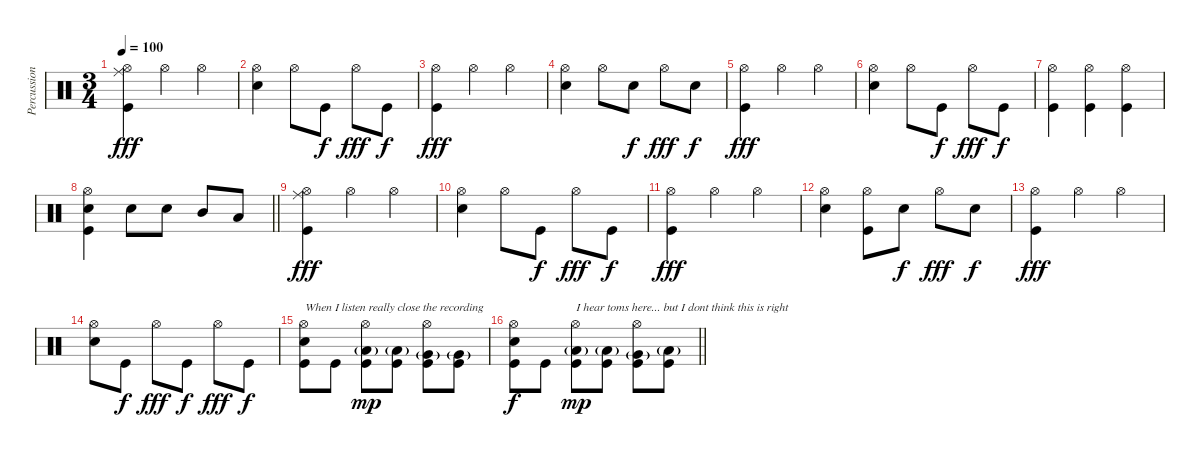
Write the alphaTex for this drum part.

\track ("Percussion" "Percussion") {instrument percussion}
\staff {score}
\articulation defaults
\ts (3 4)
\section ("" "")
\tempo 100
\clef neutral
\ks aminor
("Hi-Hat (open)" "Ride (middle)" "Kick (hit)").4{dy fff} "Hi-Hat (open)".4 "Hi-Hat (open)".4 |
("Hi-Hat (open)" "Snare (hit) 2").4 "Hi-Hat (open)".8 "Kick (hit)".8{dy f} "Hi-Hat (open)".8{dy fff} "Kick (hit)".8{dy f} |
("Hi-Hat (open)" "Kick (hit)").4{dy fff} "Hi-Hat (open)".4 "Hi-Hat (open)".4 |
("Hi-Hat (open)" "Snare (hit) 2").4 "Hi-Hat (open)".8 "Snare (hit) 2".8{dy f} "Hi-Hat (open)".8{dy fff} "Snare (hit) 2".8{dy f} |
("Hi-Hat (open)" "Kick (hit)").4{dy fff} "Hi-Hat (open)".4 "Hi-Hat (open)".4 |
("Hi-Hat (open)" "Snare (hit) 2").4 "Hi-Hat (open)".8 "Kick (hit)".8{dy f} "Hi-Hat (open)".8{dy fff} "Kick (hit)".8{dy f} |
("Hi-Hat (open)" "Kick (hit)").4 ("Hi-Hat (open)" "Kick (hit)").4 ("Hi-Hat (open)" "Kick (hit)").4 |
\barLineRight lightlight
("Hi-Hat (open)" "Snare (hit) 2" "Kick (hit)").4 "Snare (hit) 2".8 "Snare (hit) 2".8 "Mid Tom (hit)".8 "Low Tom (hit)".8 |
\section ("" "")
("Hi-Hat (open)" "Ride (middle)" "Kick (hit)").4{dy fff} "Hi-Hat (open)".4 "Hi-Hat (open)".4 |
("Hi-Hat (open)" "Snare (hit) 2").4 "Hi-Hat (open)".8 "Kick (hit)".8{dy f} "Hi-Hat (open)".8{dy fff} "Kick (hit)".8{dy f} |
("Hi-Hat (open)" "Kick (hit)").4{dy fff} "Hi-Hat (open)".4 "Hi-Hat (open)".4 |
("Hi-Hat (open)" "Snare (hit) 2").4 ("Hi-Hat (open)" "Kick (hit)").8 "Snare (hit) 2".8{dy f} "Hi-Hat (open)".8{dy fff} "Snare (hit) 2".8{dy f} |
("Hi-Hat (open)" "Kick (hit)").4{dy fff} "Hi-Hat (open)".4 "Hi-Hat (open)".4 |
("Hi-Hat (open)" "Snare (hit) 2").8 "Kick (hit)".8{dy f} "Hi-Hat (open)".8{dy fff} "Kick (hit)".8{dy f} "Hi-Hat (open)".8{dy fff} "Kick (hit)".8{dy f} |
("Hi-Hat (open)" "Snare (hit) 2" "Kick (hit)").8{txt "When I listen really close the recording"} "Kick (hit)".8 ("Hi-Hat (open)" "Low Tom (hit)"{g} "Kick (hit)").8{dy mp} ("Low Floor Tom (hit)"{g} "Kick (hit)").8 ("Hi-Hat (open)" "Very Low Tom (hit)"{g} "Kick (hit)").8 ("Very Low Tom (hit)"{g} "Kick (hit)").8 |
\barLineRight lightlight
("Hi-Hat (open)" "Snare (hit) 2" "Kick (hit)").8{dy f} "Kick (hit)".8 ("Hi-Hat (open)" "Low Tom (hit)"{g} "Kick (hit)").8{txt "I hear toms here... but I dont think this is right" dy mp} ("Low Floor Tom (hit)"{g} "Kick (hit)").8 ("Hi-Hat (open)" "Very Low Tom (hit)"{g} "Kick (hit)").8 ("Low Tom (hit)"{g} "Kick (hit)").8
